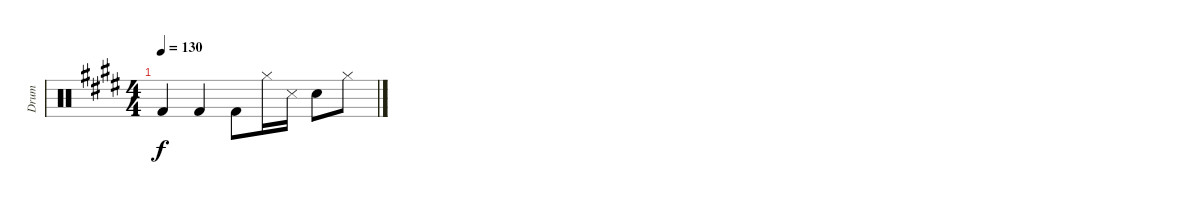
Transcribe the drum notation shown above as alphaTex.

\track ("Drum" "Drum") {instrument percussion}
\staff {score}
\articulation defaults
\ts (4 4)
\tempo 130
\clef neutral
\ks c#minor "Kick (hit) 2".4{dy f} "Kick (hit) 2".4 "Kick (hit) 2".8 "Hi-Hat (closed)".16 "Snare (side stick) 3".16 "Electric Snare (hit)".8 "Hi-Hat (closed)".8
